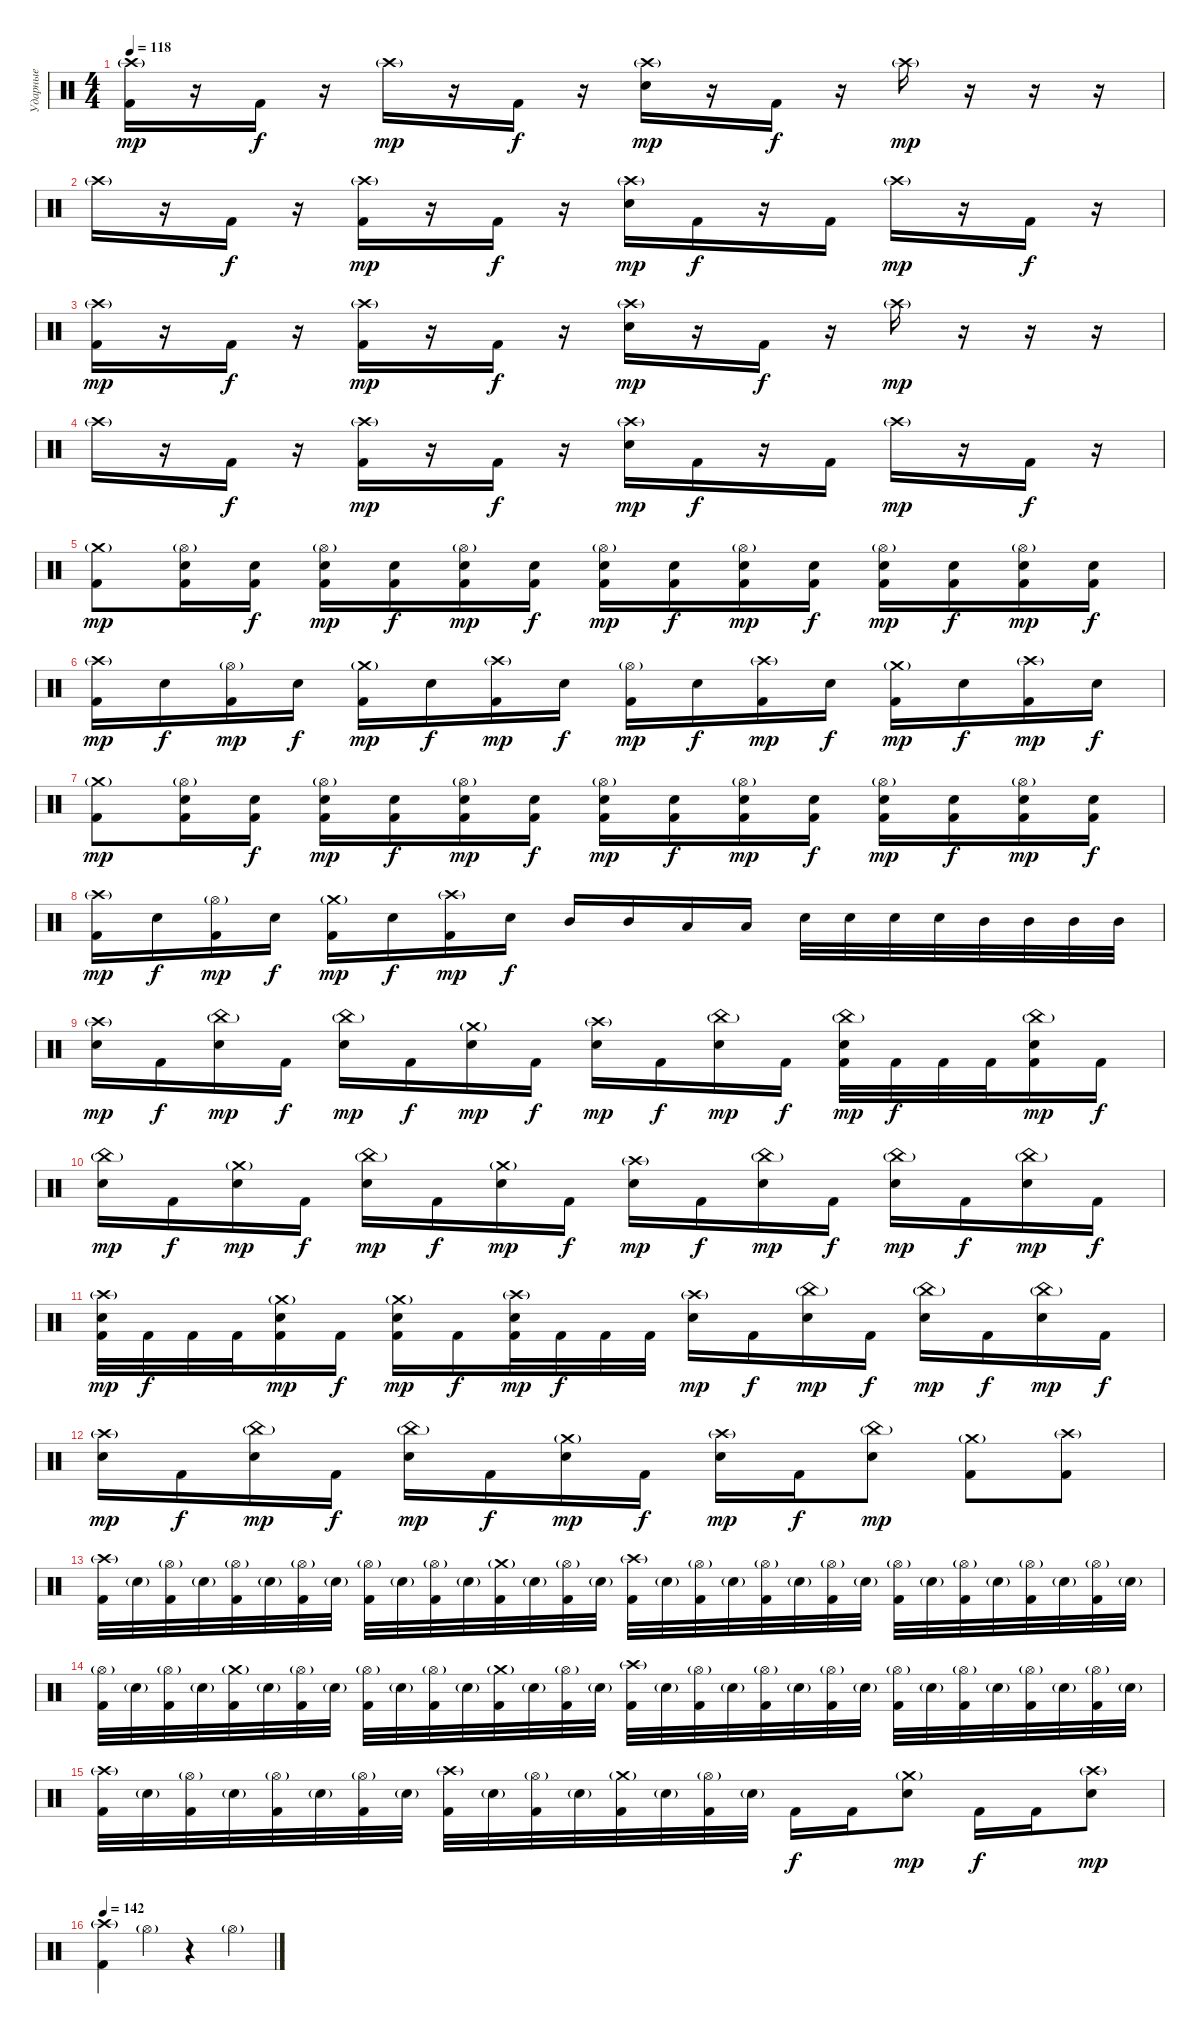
\track ("Ударные" "Ударные") {instrument percussion}
\staff {score}
\articulation defaults
\ts (4 4)
\tempo 118
\clef neutral
\ks c
("Crash high (hit)"{g} "Kick (hit) 2").16{dy mp} r.16 "Kick (hit) 2".16{dy f} r.16 "Crash high (hit)"{g}.16{dy mp} r.16 "Kick (hit) 2".16{dy f} r.16 ("Crash high (hit)"{g} "Electric Snare (hit)").16{dy mp} r.16 "Kick (hit) 2".16{dy f} r.16 "Crash high (hit)"{g}.16{dy mp} r.16 r.16 r.16 |
"Crash high (hit)"{g}.16 r.16 "Kick (hit) 2".16{dy f} r.16 ("Crash high (hit)"{g} "Kick (hit) 2").16{dy mp} r.16 "Kick (hit) 2".16{dy f} r.16 ("Crash high (hit)"{g} "Electric Snare (hit)").16{dy mp} "Kick (hit) 2".16{dy f} r.16 "Kick (hit) 2".16 "Crash high (hit)"{g}.16{dy mp} r.16 "Kick (hit) 2".16{dy f} r.16 |
("Crash high (hit)"{g} "Kick (hit) 2").16{dy mp} r.16 "Kick (hit) 2".16{dy f} r.16 ("Crash high (hit)"{g} "Kick (hit) 2").16{dy mp} r.16 "Kick (hit) 2".16{dy f} r.16 ("Crash high (hit)"{g} "Electric Snare (hit)").16{dy mp} r.16 "Kick (hit) 2".16{dy f} r.16 "Crash high (hit)"{g}.16{dy mp} r.16 r.16 r.16 |
"Crash high (hit)"{g}.16 r.16 "Kick (hit) 2".16{dy f} r.16 ("Crash high (hit)"{g} "Kick (hit) 2").16{dy mp} r.16 "Kick (hit) 2".16{dy f} r.16 ("Crash high (hit)"{g} "Electric Snare (hit)").16{dy mp} "Kick (hit) 2".16{dy f} r.16 "Kick (hit) 2".16 "Crash high (hit)"{g}.16{dy mp} r.16 "Kick (hit) 2".16{dy f} r.16 |
("Crash medium (hit)"{g} "Kick (hit) 2").8{dy mp} ("Electric Snare (hit)" "Hi-Hat (open)"{g} "Kick (hit) 2").16 ("Electric Snare (hit)" "Kick (hit) 2").16{dy f} ("Electric Snare (hit)" "Hi-Hat (open)"{g} "Kick (hit) 2").16{dy mp} ("Electric Snare (hit)" "Kick (hit) 2").16{dy f} ("Electric Snare (hit)" "Hi-Hat (open)"{g} "Kick (hit) 2").16{dy mp} ("Electric Snare (hit)" "Kick (hit) 2").16{dy f} ("Electric Snare (hit)" "Hi-Hat (open)"{g} "Kick (hit) 2").16{dy mp} ("Electric Snare (hit)" "Kick (hit) 2").16{dy f} ("Electric Snare (hit)" "Hi-Hat (open)"{g} "Kick (hit) 2").16{dy mp} ("Electric Snare (hit)" "Kick (hit) 2").16{dy f} ("Electric Snare (hit)" "Hi-Hat (open)"{g} "Kick (hit) 2").16{dy mp} ("Electric Snare (hit)" "Kick (hit) 2").16{dy f} ("Electric Snare (hit)" "Hi-Hat (open)"{g} "Kick (hit) 2").16{dy mp} ("Electric Snare (hit)" "Kick (hit) 2").16{dy f} |
("Crash high (hit)"{g} "Kick (hit) 2").16{dy mp} "Electric Snare (hit)".16{dy f} ("Hi-Hat (open)"{g} "Kick (hit) 2").16{dy mp} "Electric Snare (hit)".16{dy f} ("Crash medium (hit)"{g} "Kick (hit) 2").16{dy mp} "Electric Snare (hit)".16{dy f} ("Crash high (hit)"{g} "Kick (hit) 2").16{dy mp} "Electric Snare (hit)".16{dy f} ("Hi-Hat (open)"{g} "Kick (hit) 2").16{dy mp} "Electric Snare (hit)".16{dy f} ("Crash high (hit)"{g} "Kick (hit) 2").16{dy mp} "Electric Snare (hit)".16{dy f} ("Crash medium (hit)"{g} "Kick (hit) 2").16{dy mp} "Electric Snare (hit)".16{dy f} ("Crash high (hit)"{g} "Kick (hit) 2").16{dy mp} "Electric Snare (hit)".16{dy f} |
("Crash medium (hit)"{g} "Kick (hit) 2").8{dy mp} ("Electric Snare (hit)" "Hi-Hat (open)"{g} "Kick (hit) 2").16 ("Electric Snare (hit)" "Kick (hit) 2").16{dy f} ("Electric Snare (hit)" "Hi-Hat (open)"{g} "Kick (hit) 2").16{dy mp} ("Electric Snare (hit)" "Kick (hit) 2").16{dy f} ("Electric Snare (hit)" "Hi-Hat (open)"{g} "Kick (hit) 2").16{dy mp} ("Electric Snare (hit)" "Kick (hit) 2").16{dy f} ("Electric Snare (hit)" "Hi-Hat (open)"{g} "Kick (hit) 2").16{dy mp} ("Electric Snare (hit)" "Kick (hit) 2").16{dy f} ("Electric Snare (hit)" "Hi-Hat (open)"{g} "Kick (hit) 2").16{dy mp} ("Electric Snare (hit)" "Kick (hit) 2").16{dy f} ("Electric Snare (hit)" "Hi-Hat (open)"{g} "Kick (hit) 2").16{dy mp} ("Electric Snare (hit)" "Kick (hit) 2").16{dy f} ("Electric Snare (hit)" "Hi-Hat (open)"{g} "Kick (hit) 2").16{dy mp} ("Electric Snare (hit)" "Kick (hit) 2").16{dy f} |
("Crash high (hit)"{g} "Kick (hit) 2").16{dy mp} "Electric Snare (hit)".16{dy f} ("Hi-Hat (open)"{g} "Kick (hit) 2").16{dy mp} "Electric Snare (hit)".16{dy f} ("Crash medium (hit)"{g} "Kick (hit) 2").16{dy mp} "Electric Snare (hit)".16{dy f} ("Crash high (hit)"{g} "Kick (hit) 2").16{dy mp} "Electric Snare (hit)".16{dy f} "Mid Tom (hit)".16 "Mid Tom (hit)".16 "Low Tom (hit)".16 "Low Tom (hit)".16 "Electric Snare (hit)".32 "Electric Snare (hit)".32 "Electric Snare (hit)".32 "Electric Snare (hit)".32 "Mid Tom (hit)".32 "Mid Tom (hit)".32 "Mid Tom (hit)".32 "Mid Tom (hit)".32 |
("Crash high (hit)"{g} "Electric Snare (hit)").16{dy mp} "Kick (hit) 2".16{dy f} ("China (hit)"{g} "Electric Snare (hit)").16{dy mp} "Kick (hit) 2".16{dy f} ("China (hit)"{g} "Electric Snare (hit)").16{dy mp} "Kick (hit) 2".16{dy f} ("Crash medium (hit)"{g} "Electric Snare (hit)").16{dy mp} "Kick (hit) 2".16{dy f} ("Crash high (hit)"{g} "Electric Snare (hit)").16{dy mp} "Kick (hit) 2".16{dy f} ("China (hit)"{g} "Electric Snare (hit)").16{dy mp} "Kick (hit) 2".16{dy f} ("China (hit)"{g} "Electric Snare (hit)" "Kick (hit) 2").32{dy mp} "Kick (hit) 2".32{dy f} "Kick (hit) 2".32 "Kick (hit) 2".32 ("China (hit)"{g} "Electric Snare (hit)" "Kick (hit) 2").16{dy mp} "Kick (hit) 2".16{dy f} |
("China (hit)"{g} "Electric Snare (hit)").16{dy mp} "Kick (hit) 2".16{dy f} ("Crash medium (hit)"{g} "Electric Snare (hit)").16{dy mp} "Kick (hit) 2".16{dy f} ("China (hit)"{g} "Electric Snare (hit)").16{dy mp} "Kick (hit) 2".16{dy f} ("Crash medium (hit)"{g} "Electric Snare (hit)").16{dy mp} "Kick (hit) 2".16{dy f} ("Crash high (hit)"{g} "Electric Snare (hit)").16{dy mp} "Kick (hit) 2".16{dy f} ("China (hit)"{g} "Electric Snare (hit)").16{dy mp} "Kick (hit) 2".16{dy f} ("China (hit)"{g} "Electric Snare (hit)").16{dy mp} "Kick (hit) 2".16{dy f} ("China (hit)"{g} "Electric Snare (hit)").16{dy mp} "Kick (hit) 2".16{dy f} |
("Crash high (hit)"{g} "Electric Snare (hit)" "Kick (hit) 2").32{dy mp} "Kick (hit) 2".32{dy f} "Kick (hit) 2".32 "Kick (hit) 2".32 ("Crash medium (hit)"{g} "Electric Snare (hit)" "Kick (hit) 2").16{dy mp} "Kick (hit) 2".16{dy f} ("Crash medium (hit)"{g} "Electric Snare (hit)" "Kick (hit) 2").16{dy mp} "Kick (hit) 2".16{dy f} ("Crash high (hit)"{g} "Electric Snare (hit)" "Kick (hit) 2").32{dy mp} "Kick (hit) 2".32{dy f} "Kick (hit) 2".32 "Kick (hit) 2".32 ("Crash high (hit)"{g} "Electric Snare (hit)").16{dy mp} "Kick (hit) 2".16{dy f} ("China (hit)"{g} "Electric Snare (hit)").16{dy mp} "Kick (hit) 2".16{dy f} ("China (hit)"{g} "Electric Snare (hit)").16{dy mp} "Kick (hit) 2".16{dy f} ("China (hit)"{g} "Electric Snare (hit)").16{dy mp} "Kick (hit) 2".16{dy f} |
("Crash high (hit)"{g} "Electric Snare (hit)").16{dy mp} "Kick (hit) 2".16{dy f} ("China (hit)"{g} "Electric Snare (hit)").16{dy mp} "Kick (hit) 2".16{dy f} ("China (hit)"{g} "Electric Snare (hit)").16{dy mp} "Kick (hit) 2".16{dy f} ("Crash medium (hit)"{g} "Electric Snare (hit)").16{dy mp} "Kick (hit) 2".16{dy f} ("Crash high (hit)"{g} "Electric Snare (hit)").16{dy mp} "Kick (hit) 2".16{dy f} ("China (hit)"{g} "Electric Snare (hit)").8{dy mp} ("Crash medium (hit)"{g} "Kick (hit) 2").8 ("Crash high (hit)"{g} "Kick (hit) 2").8 |
("Crash high (hit)"{g} "Kick (hit) 2").32 "Electric Snare (hit)"{g}.32 ("Hi-Hat (open)"{g} "Kick (hit) 2").32 "Electric Snare (hit)"{g}.32 ("Hi-Hat (open)"{g} "Kick (hit) 2").32 "Electric Snare (hit)"{g}.32 ("Hi-Hat (open)"{g} "Kick (hit) 2").32 "Electric Snare (hit)"{g}.32 ("Hi-Hat (open)"{g} "Kick (hit) 2").32 "Electric Snare (hit)"{g}.32 ("Hi-Hat (open)"{g} "Kick (hit) 2").32 "Electric Snare (hit)"{g}.32 ("Crash medium (hit)"{g} "Kick (hit) 2").32 "Electric Snare (hit)"{g}.32 ("Hi-Hat (open)"{g} "Kick (hit) 2").32 "Electric Snare (hit)"{g}.32 ("Crash high (hit)"{g} "Kick (hit) 2").32 "Electric Snare (hit)"{g}.32 ("Hi-Hat (open)"{g} "Kick (hit) 2").32 "Electric Snare (hit)"{g}.32 ("Hi-Hat (open)"{g} "Kick (hit) 2").32 "Electric Snare (hit)"{g}.32 ("Hi-Hat (open)"{g} "Kick (hit) 2").32 "Electric Snare (hit)"{g}.32 ("Hi-Hat (open)"{g} "Kick (hit) 2").32 "Electric Snare (hit)"{g}.32 ("Hi-Hat (open)"{g} "Kick (hit) 2").32 "Electric Snare (hit)"{g}.32 ("Hi-Hat (open)"{g} "Kick (hit) 2").32 "Electric Snare (hit)"{g}.32 ("Hi-Hat (open)"{g} "Kick (hit) 2").32 "Electric Snare (hit)"{g}.32 |
("Hi-Hat (open)"{g} "Kick (hit) 2").32 "Electric Snare (hit)"{g}.32 ("Hi-Hat (open)"{g} "Kick (hit) 2").32 "Electric Snare (hit)"{g}.32 ("Crash medium (hit)"{g} "Kick (hit) 2").32 "Electric Snare (hit)"{g}.32 ("Hi-Hat (open)"{g} "Kick (hit) 2").32 "Electric Snare (hit)"{g}.32 ("Hi-Hat (open)"{g} "Kick (hit) 2").32 "Electric Snare (hit)"{g}.32 ("Hi-Hat (open)"{g} "Kick (hit) 2").32 "Electric Snare (hit)"{g}.32 ("Crash medium (hit)"{g} "Kick (hit) 2").32 "Electric Snare (hit)"{g}.32 ("Hi-Hat (open)"{g} "Kick (hit) 2").32 "Electric Snare (hit)"{g}.32 ("Crash high (hit)"{g} "Kick (hit) 2").32 "Electric Snare (hit)"{g}.32 ("Hi-Hat (open)"{g} "Kick (hit) 2").32 "Electric Snare (hit)"{g}.32 ("Hi-Hat (open)"{g} "Kick (hit) 2").32 "Electric Snare (hit)"{g}.32 ("Hi-Hat (open)"{g} "Kick (hit) 2").32 "Electric Snare (hit)"{g}.32 ("Hi-Hat (open)"{g} "Kick (hit) 2").32 "Electric Snare (hit)"{g}.32 ("Hi-Hat (open)"{g} "Kick (hit) 2").32 "Electric Snare (hit)"{g}.32 ("Hi-Hat (open)"{g} "Kick (hit) 2").32 "Electric Snare (hit)"{g}.32 ("Hi-Hat (open)"{g} "Kick (hit) 2").32 "Electric Snare (hit)"{g}.32 |
("Crash high (hit)"{g} "Kick (hit) 2").32 "Electric Snare (hit)"{g}.32 ("Hi-Hat (open)"{g} "Kick (hit) 2").32 "Electric Snare (hit)"{g}.32 ("Hi-Hat (open)"{g} "Kick (hit) 2").32 "Electric Snare (hit)"{g}.32 ("Hi-Hat (open)"{g} "Kick (hit) 2").32 "Electric Snare (hit)"{g}.32 ("Crash high (hit)"{g} "Kick (hit) 2").32 "Electric Snare (hit)"{g}.32 ("Hi-Hat (open)"{g} "Kick (hit) 2").32 "Electric Snare (hit)"{g}.32 ("Crash medium (hit)"{g} "Kick (hit) 2").32 "Electric Snare (hit)"{g}.32 ("Hi-Hat (open)"{g} "Kick (hit) 2").32 "Electric Snare (hit)"{g}.32 "Kick (hit) 2".16{dy f} "Kick (hit) 2".16 ("Crash medium (hit)"{g} "Electric Snare (hit)").8{dy mp} "Kick (hit) 2".16{dy f} "Kick (hit) 2".16 ("Crash high (hit)"{g} "Electric Snare (hit)").8{dy mp} |
\tempo 142
("Crash high (hit)"{g} "Kick (hit) 2").4 "Hi-Hat (open)"{g}.4 r.4 "Hi-Hat (open)"{g}.4
